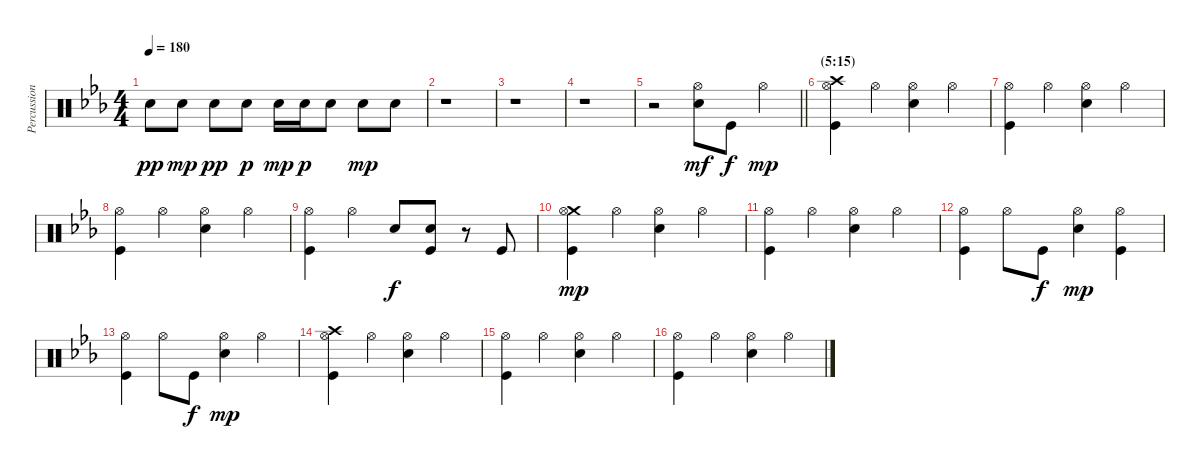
\track ("Percussion" "Percussion") {instrument percussion}
\staff {score}
\articulation defaults
\ts (4 4)
\tempo 180
\clef neutral
\ks cminor "Snare (hit) 2".8{dy pp} "Snare (hit) 2".8{dy mp} "Snare (hit) 2".8{dy pp} "Snare (hit) 2".8{dy p} "Snare (hit) 2".16{dy mp} "Snare (hit) 2".16{dy p} "Snare (hit) 2".8 "Snare (hit) 2".8{dy mp} "Snare (hit) 2".8
|
r.1 |
r.1 |
r.1 |
\barLineRight lightlight
r.2{volume 13 balance 8} ("Hi-Hat (open)" "Snare (hit) 2").8{dy mf} "Kick (hit)".8{dy f} "Hi-Hat (open)".4{dy mp} |
\section ("" "(5:15)")
("Crash high (hit)" "Hi-Hat (open)" "Kick (hit)").4 "Hi-Hat (open)".4 ("Hi-Hat (open)" "Snare (hit) 2").4 "Hi-Hat (open)".4 |
("Hi-Hat (open)" "Kick (hit)").4 "Hi-Hat (open)".4 ("Hi-Hat (open)" "Snare (hit) 2").4 "Hi-Hat (open)".4 |
("Hi-Hat (open)" "Kick (hit)").4 "Hi-Hat (open)".4 ("Hi-Hat (open)" "Snare (hit) 2").4 "Hi-Hat (open)".4 |
("Hi-Hat (open)" "Kick (hit)").4 "Hi-Hat (open)".4 "Snare (hit) 2".8{dy f} ("Snare (hit) 2" "Kick (hit)").8 r.8 "Kick (hit)".8 |
("Crash medium (hit)" "Hi-Hat (open)" "Kick (hit)").4{dy mp} "Hi-Hat (open)".4 ("Hi-Hat (open)" "Snare (hit) 2").4 "Hi-Hat (open)".4 |
("Hi-Hat (open)" "Kick (hit)").4 "Hi-Hat (open)".4 ("Hi-Hat (open)" "Snare (hit) 2").4 "Hi-Hat (open)".4 |
("Hi-Hat (open)" "Kick (hit)").4 "Hi-Hat (open)".8 "Kick (hit)".8{dy f} ("Hi-Hat (open)" "Snare (hit) 2").4{dy mp} ("Hi-Hat (open)" "Kick (hit)").4 |
("Hi-Hat (open)" "Kick (hit)").4 "Hi-Hat (open)".8 "Kick (hit)".8{dy f} ("Hi-Hat (open)" "Snare (hit) 2").4{dy mp} "Hi-Hat (open)".4 |
("Crash high (hit)" "Hi-Hat (open)" "Kick (hit)").4 "Hi-Hat (open)".4 ("Hi-Hat (open)" "Snare (hit) 2").4 "Hi-Hat (open)".4 |
("Hi-Hat (open)" "Kick (hit)").4 "Hi-Hat (open)".4 ("Hi-Hat (open)" "Snare (hit) 2").4 "Hi-Hat (open)".4 |
("Hi-Hat (open)" "Kick (hit)").4 "Hi-Hat (open)".4 ("Hi-Hat (open)" "Snare (hit) 2").4 "Hi-Hat (open)".4
